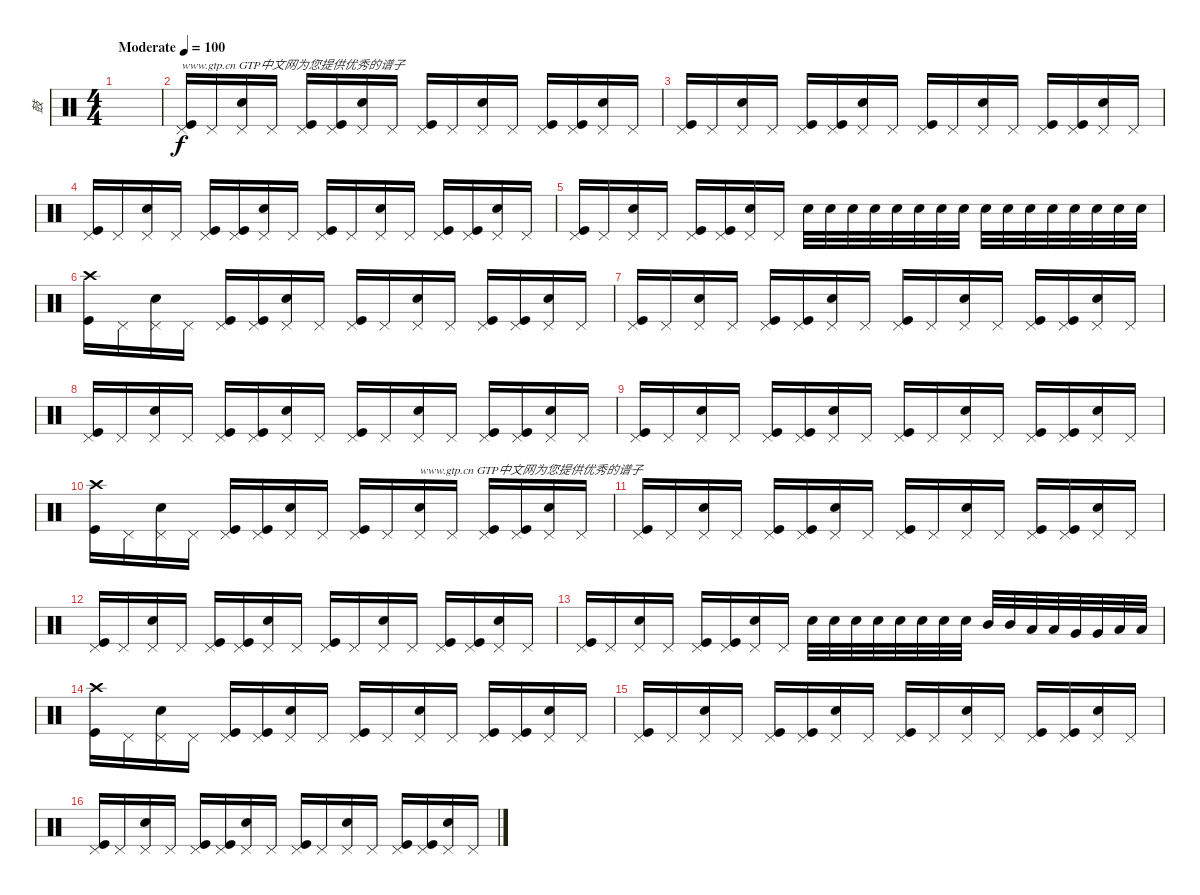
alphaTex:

\track ("鼓" "鼓") {instrument percussion}
\staff {score}
\articulation defaults
\ts (4 4)
\tempo (100 "Moderate")
\clef neutral
\ks c
|
("Kick (hit)" "Pedal Hi-Hat (hit)").16{txt "www.gtp.cn GTP中文网为您提供优秀的谱子"} "Pedal Hi-Hat (hit)".16 ("Snare (hit) 2" "Pedal Hi-Hat (hit)").16 "Pedal Hi-Hat (hit)".16 ("Kick (hit)" "Pedal Hi-Hat (hit)").16 ("Kick (hit)" "Pedal Hi-Hat (hit)").16 ("Snare (hit) 2" "Pedal Hi-Hat (hit)").16 "Pedal Hi-Hat (hit)".16 ("Kick (hit)" "Pedal Hi-Hat (hit)").16 "Pedal Hi-Hat (hit)".16 ("Snare (hit) 2" "Pedal Hi-Hat (hit)").16 "Pedal Hi-Hat (hit)".16 ("Kick (hit)" "Pedal Hi-Hat (hit)").16 ("Kick (hit)" "Pedal Hi-Hat (hit)").16 ("Snare (hit) 2" "Pedal Hi-Hat (hit)").16 "Pedal Hi-Hat (hit)".16 |
("Kick (hit)" "Pedal Hi-Hat (hit)").16 "Pedal Hi-Hat (hit)".16 ("Snare (hit) 2" "Pedal Hi-Hat (hit)").16 "Pedal Hi-Hat (hit)".16 ("Kick (hit)" "Pedal Hi-Hat (hit)").16 ("Kick (hit)" "Pedal Hi-Hat (hit)").16 ("Snare (hit) 2" "Pedal Hi-Hat (hit)").16 "Pedal Hi-Hat (hit)".16 ("Kick (hit)" "Pedal Hi-Hat (hit)").16 "Pedal Hi-Hat (hit)".16 ("Snare (hit) 2" "Pedal Hi-Hat (hit)").16 "Pedal Hi-Hat (hit)".16 ("Kick (hit)" "Pedal Hi-Hat (hit)").16 ("Kick (hit)" "Pedal Hi-Hat (hit)").16 ("Snare (hit) 2" "Pedal Hi-Hat (hit)").16 "Pedal Hi-Hat (hit)".16 |
("Kick (hit)" "Pedal Hi-Hat (hit)").16 "Pedal Hi-Hat (hit)".16 ("Snare (hit) 2" "Pedal Hi-Hat (hit)").16 "Pedal Hi-Hat (hit)".16 ("Kick (hit)" "Pedal Hi-Hat (hit)").16 ("Kick (hit)" "Pedal Hi-Hat (hit)").16 ("Snare (hit) 2" "Pedal Hi-Hat (hit)").16 "Pedal Hi-Hat (hit)".16 ("Kick (hit)" "Pedal Hi-Hat (hit)").16 "Pedal Hi-Hat (hit)".16 ("Snare (hit) 2" "Pedal Hi-Hat (hit)").16 "Pedal Hi-Hat (hit)".16 ("Kick (hit)" "Pedal Hi-Hat (hit)").16 ("Kick (hit)" "Pedal Hi-Hat (hit)").16 ("Snare (hit) 2" "Pedal Hi-Hat (hit)").16 "Pedal Hi-Hat (hit)".16 |
("Kick (hit)" "Pedal Hi-Hat (hit)").16 "Pedal Hi-Hat (hit)".16 ("Snare (hit) 2" "Pedal Hi-Hat (hit)").16 "Pedal Hi-Hat (hit)".16 ("Kick (hit)" "Pedal Hi-Hat (hit)").16 ("Kick (hit)" "Pedal Hi-Hat (hit)").16 ("Snare (hit) 2" "Pedal Hi-Hat (hit)").16 "Pedal Hi-Hat (hit)".16 "Snare (hit) 2".32 "Snare (hit) 2".32 "Snare (hit) 2".32 "Snare (hit) 2".32 "Snare (hit) 2".32 "Snare (hit) 2".32 "Snare (hit) 2".32 "Snare (hit) 2".32 "Snare (hit) 2".32 "Snare (hit) 2".32 "Snare (hit) 2".32 "Snare (hit) 2".32 "Snare (hit) 2".32 "Snare (hit) 2".32 "Snare (hit) 2".32 "Snare (hit) 2".32 |
("Kick (hit)" "Crash high (hit)").16 "Pedal Hi-Hat (hit)".16 ("Snare (hit) 2" "Pedal Hi-Hat (hit)").16 "Pedal Hi-Hat (hit)".16 ("Kick (hit)" "Pedal Hi-Hat (hit)").16 ("Kick (hit)" "Pedal Hi-Hat (hit)").16 ("Snare (hit) 2" "Pedal Hi-Hat (hit)").16 "Pedal Hi-Hat (hit)".16 ("Kick (hit)" "Pedal Hi-Hat (hit)").16 "Pedal Hi-Hat (hit)".16 ("Snare (hit) 2" "Pedal Hi-Hat (hit)").16 "Pedal Hi-Hat (hit)".16 ("Kick (hit)" "Pedal Hi-Hat (hit)").16 ("Kick (hit)" "Pedal Hi-Hat (hit)").16 ("Snare (hit) 2" "Pedal Hi-Hat (hit)").16 "Pedal Hi-Hat (hit)".16 |
("Kick (hit)" "Pedal Hi-Hat (hit)").16 "Pedal Hi-Hat (hit)".16 ("Snare (hit) 2" "Pedal Hi-Hat (hit)").16 "Pedal Hi-Hat (hit)".16 ("Kick (hit)" "Pedal Hi-Hat (hit)").16 ("Kick (hit)" "Pedal Hi-Hat (hit)").16 ("Snare (hit) 2" "Pedal Hi-Hat (hit)").16 "Pedal Hi-Hat (hit)".16 ("Kick (hit)" "Pedal Hi-Hat (hit)").16 "Pedal Hi-Hat (hit)".16 ("Snare (hit) 2" "Pedal Hi-Hat (hit)").16 "Pedal Hi-Hat (hit)".16 ("Kick (hit)" "Pedal Hi-Hat (hit)").16 ("Kick (hit)" "Pedal Hi-Hat (hit)").16 ("Snare (hit) 2" "Pedal Hi-Hat (hit)").16 "Pedal Hi-Hat (hit)".16 |
("Kick (hit)" "Pedal Hi-Hat (hit)").16 "Pedal Hi-Hat (hit)".16 ("Snare (hit) 2" "Pedal Hi-Hat (hit)").16 "Pedal Hi-Hat (hit)".16 ("Kick (hit)" "Pedal Hi-Hat (hit)").16 ("Kick (hit)" "Pedal Hi-Hat (hit)").16 ("Snare (hit) 2" "Pedal Hi-Hat (hit)").16 "Pedal Hi-Hat (hit)".16 ("Kick (hit)" "Pedal Hi-Hat (hit)").16 "Pedal Hi-Hat (hit)".16 ("Snare (hit) 2" "Pedal Hi-Hat (hit)").16 "Pedal Hi-Hat (hit)".16 ("Kick (hit)" "Pedal Hi-Hat (hit)").16 ("Kick (hit)" "Pedal Hi-Hat (hit)").16 ("Snare (hit) 2" "Pedal Hi-Hat (hit)").16 "Pedal Hi-Hat (hit)".16 |
("Kick (hit)" "Pedal Hi-Hat (hit)").16 "Pedal Hi-Hat (hit)".16 ("Snare (hit) 2" "Pedal Hi-Hat (hit)").16 "Pedal Hi-Hat (hit)".16 ("Kick (hit)" "Pedal Hi-Hat (hit)").16 ("Kick (hit)" "Pedal Hi-Hat (hit)").16 ("Snare (hit) 2" "Pedal Hi-Hat (hit)").16 "Pedal Hi-Hat (hit)".16 ("Kick (hit)" "Pedal Hi-Hat (hit)").16 "Pedal Hi-Hat (hit)".16 ("Snare (hit) 2" "Pedal Hi-Hat (hit)").16 "Pedal Hi-Hat (hit)".16 ("Kick (hit)" "Pedal Hi-Hat (hit)").16 ("Kick (hit)" "Pedal Hi-Hat (hit)").16 ("Snare (hit) 2" "Pedal Hi-Hat (hit)").16 "Pedal Hi-Hat (hit)".16 |
("Kick (hit)" "Crash high (hit)").16 "Pedal Hi-Hat (hit)".16 ("Snare (hit) 2" "Pedal Hi-Hat (hit)").16 "Pedal Hi-Hat (hit)".16 ("Kick (hit)" "Pedal Hi-Hat (hit)").16 ("Kick (hit)" "Pedal Hi-Hat (hit)").16 ("Snare (hit) 2" "Pedal Hi-Hat (hit)").16 "Pedal Hi-Hat (hit)".16 ("Kick (hit)" "Pedal Hi-Hat (hit)").16 "Pedal Hi-Hat (hit)".16 ("Snare (hit) 2" "Pedal Hi-Hat (hit)").16{txt "www.gtp.cn GTP中文网为您提供优秀的谱子"} "Pedal Hi-Hat (hit)".16 ("Kick (hit)" "Pedal Hi-Hat (hit)").16 ("Kick (hit)" "Pedal Hi-Hat (hit)").16 ("Snare (hit) 2" "Pedal Hi-Hat (hit)").16 "Pedal Hi-Hat (hit)".16 |
("Kick (hit)" "Pedal Hi-Hat (hit)").16 "Pedal Hi-Hat (hit)".16 ("Snare (hit) 2" "Pedal Hi-Hat (hit)").16 "Pedal Hi-Hat (hit)".16 ("Kick (hit)" "Pedal Hi-Hat (hit)").16 ("Kick (hit)" "Pedal Hi-Hat (hit)").16 ("Snare (hit) 2" "Pedal Hi-Hat (hit)").16 "Pedal Hi-Hat (hit)".16 ("Kick (hit)" "Pedal Hi-Hat (hit)").16 "Pedal Hi-Hat (hit)".16 ("Snare (hit) 2" "Pedal Hi-Hat (hit)").16 "Pedal Hi-Hat (hit)".16 ("Kick (hit)" "Pedal Hi-Hat (hit)").16 ("Kick (hit)" "Pedal Hi-Hat (hit)").16 ("Snare (hit) 2" "Pedal Hi-Hat (hit)").16 "Pedal Hi-Hat (hit)".16 |
("Kick (hit)" "Pedal Hi-Hat (hit)").16 "Pedal Hi-Hat (hit)".16 ("Snare (hit) 2" "Pedal Hi-Hat (hit)").16 "Pedal Hi-Hat (hit)".16 ("Kick (hit)" "Pedal Hi-Hat (hit)").16 ("Kick (hit)" "Pedal Hi-Hat (hit)").16 ("Snare (hit) 2" "Pedal Hi-Hat (hit)").16 "Pedal Hi-Hat (hit)".16 ("Kick (hit)" "Pedal Hi-Hat (hit)").16 "Pedal Hi-Hat (hit)".16 ("Snare (hit) 2" "Pedal Hi-Hat (hit)").16 "Pedal Hi-Hat (hit)".16 ("Kick (hit)" "Pedal Hi-Hat (hit)").16 ("Kick (hit)" "Pedal Hi-Hat (hit)").16 ("Snare (hit) 2" "Pedal Hi-Hat (hit)").16 "Pedal Hi-Hat (hit)".16 |
("Kick (hit)" "Pedal Hi-Hat (hit)").16 "Pedal Hi-Hat (hit)".16 ("Snare (hit) 2" "Pedal Hi-Hat (hit)").16 "Pedal Hi-Hat (hit)".16 ("Kick (hit)" "Pedal Hi-Hat (hit)").16 ("Kick (hit)" "Pedal Hi-Hat (hit)").16 ("Snare (hit) 2" "Pedal Hi-Hat (hit)").16 "Pedal Hi-Hat (hit)".16 "Snare (hit) 2".32 "Snare (hit) 2".32 "Snare (hit) 2".32 "Snare (hit) 2".32 "Snare (hit) 2".32 "Snare (hit) 2".32 "Snare (hit) 2".32 "Snare (hit) 2".32 "Mid Tom (hit)".32 "Mid Tom (hit)".32 "Low Tom (hit)".32 "Low Tom (hit)".32 "Very Low Tom (hit)".32 "Very Low Tom (hit)".32 "Low Floor Tom (hit)".32 "Low Floor Tom (hit)".32 |
("Kick (hit)" "Crash high (hit)").16 "Pedal Hi-Hat (hit)".16 ("Snare (hit) 2" "Pedal Hi-Hat (hit)").16 "Pedal Hi-Hat (hit)".16 ("Kick (hit)" "Pedal Hi-Hat (hit)").16 ("Kick (hit)" "Pedal Hi-Hat (hit)").16 ("Snare (hit) 2" "Pedal Hi-Hat (hit)").16 "Pedal Hi-Hat (hit)".16 ("Kick (hit)" "Pedal Hi-Hat (hit)").16 "Pedal Hi-Hat (hit)".16 ("Snare (hit) 2" "Pedal Hi-Hat (hit)").16 "Pedal Hi-Hat (hit)".16 ("Kick (hit)" "Pedal Hi-Hat (hit)").16 ("Kick (hit)" "Pedal Hi-Hat (hit)").16 ("Snare (hit) 2" "Pedal Hi-Hat (hit)").16 "Pedal Hi-Hat (hit)".16 |
("Kick (hit)" "Pedal Hi-Hat (hit)").16 "Pedal Hi-Hat (hit)".16 ("Snare (hit) 2" "Pedal Hi-Hat (hit)").16 "Pedal Hi-Hat (hit)".16 ("Kick (hit)" "Pedal Hi-Hat (hit)").16 ("Kick (hit)" "Pedal Hi-Hat (hit)").16 ("Snare (hit) 2" "Pedal Hi-Hat (hit)").16 "Pedal Hi-Hat (hit)".16 ("Kick (hit)" "Pedal Hi-Hat (hit)").16 "Pedal Hi-Hat (hit)".16 ("Snare (hit) 2" "Pedal Hi-Hat (hit)").16 "Pedal Hi-Hat (hit)".16 ("Kick (hit)" "Pedal Hi-Hat (hit)").16 ("Kick (hit)" "Pedal Hi-Hat (hit)").16 ("Snare (hit) 2" "Pedal Hi-Hat (hit)").16 "Pedal Hi-Hat (hit)".16 |
("Kick (hit)" "Pedal Hi-Hat (hit)").16 "Pedal Hi-Hat (hit)".16 ("Snare (hit) 2" "Pedal Hi-Hat (hit)").16 "Pedal Hi-Hat (hit)".16 ("Kick (hit)" "Pedal Hi-Hat (hit)").16 ("Kick (hit)" "Pedal Hi-Hat (hit)").16 ("Snare (hit) 2" "Pedal Hi-Hat (hit)").16 "Pedal Hi-Hat (hit)".16 ("Kick (hit)" "Pedal Hi-Hat (hit)").16 "Pedal Hi-Hat (hit)".16 ("Snare (hit) 2" "Pedal Hi-Hat (hit)").16 "Pedal Hi-Hat (hit)".16 ("Kick (hit)" "Pedal Hi-Hat (hit)").16 ("Kick (hit)" "Pedal Hi-Hat (hit)").16 ("Snare (hit) 2" "Pedal Hi-Hat (hit)").16 "Pedal Hi-Hat (hit)".16
